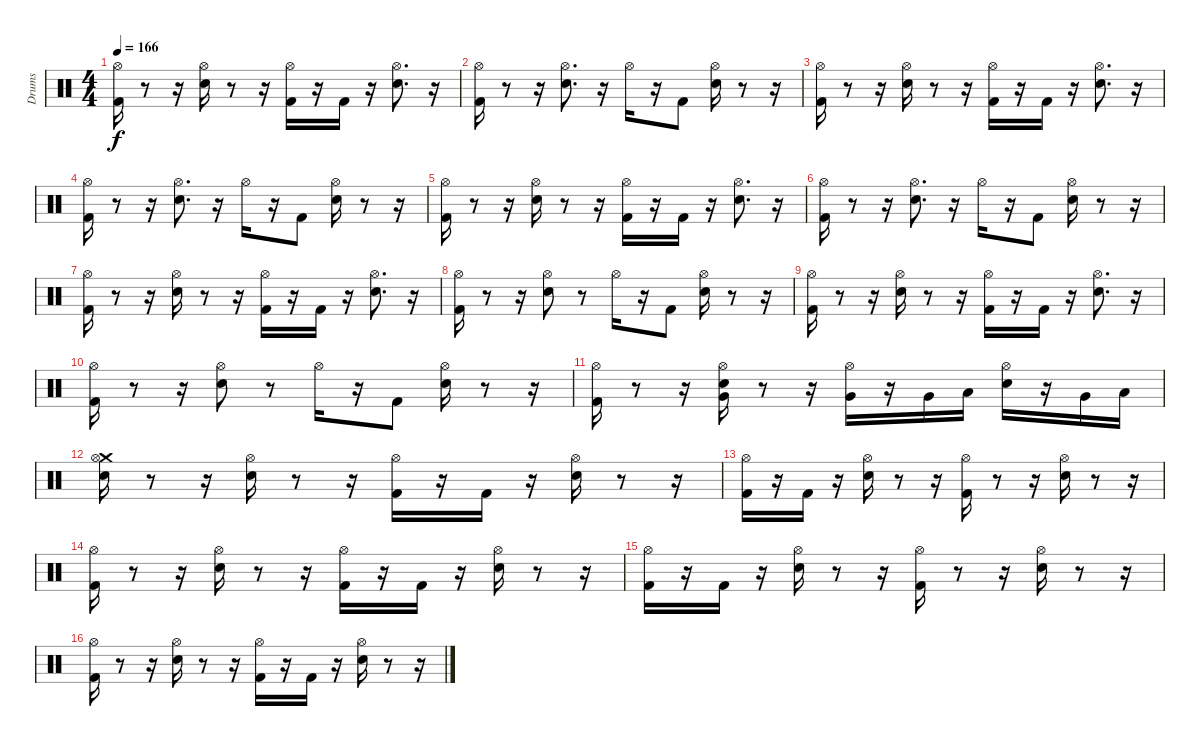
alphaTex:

\track ("Drums" "Drums") {instrument percussion}
\staff {score}
\articulation defaults
\ts (4 4)
\tempo 166
\clef neutral
\ks c
("Kick (hit) 2" "Hi-Hat (open)").16{dy f} r.8 r.16 ("Snare (hit) 2" "Hi-Hat (open)").16 r.8 r.16 ("Kick (hit) 2" "Hi-Hat (open)").16 r.16 "Kick (hit) 2".16 r.16 ("Snare (hit) 2" "Hi-Hat (open)").8{d} r.16 |
("Kick (hit) 2" "Hi-Hat (open)").16 r.8 r.16 ("Hi-Hat (open)" "Snare (hit) 2").8{d} r.16 "Hi-Hat (open)".16 r.16 "Kick (hit) 2".8 ("Snare (hit) 2" "Hi-Hat (open)").16 r.8 r.16 |
("Kick (hit) 2" "Hi-Hat (open)").16 r.8 r.16 ("Snare (hit) 2" "Hi-Hat (open)").16 r.8 r.16 ("Kick (hit) 2" "Hi-Hat (open)").16 r.16 "Kick (hit) 2".16 r.16 ("Snare (hit) 2" "Hi-Hat (open)").8{d} r.16 |
("Kick (hit) 2" "Hi-Hat (open)").16 r.8 r.16 ("Hi-Hat (open)" "Snare (hit) 2").8{d} r.16 "Hi-Hat (open)".16 r.16 "Kick (hit) 2".8 ("Snare (hit) 2" "Hi-Hat (open)").16 r.8 r.16 |
("Kick (hit) 2" "Hi-Hat (open)").16 r.8 r.16 ("Snare (hit) 2" "Hi-Hat (open)").16 r.8 r.16 ("Kick (hit) 2" "Hi-Hat (open)").16 r.16 "Kick (hit) 2".16 r.16 ("Snare (hit) 2" "Hi-Hat (open)").8{d} r.16 |
("Kick (hit) 2" "Hi-Hat (open)").16 r.8 r.16 ("Hi-Hat (open)" "Snare (hit) 2").8{d} r.16 "Hi-Hat (open)".16 r.16 "Kick (hit) 2".8 ("Snare (hit) 2" "Hi-Hat (open)").16 r.8 r.16 |
("Kick (hit) 2" "Hi-Hat (open)").16 r.8 r.16 ("Snare (hit) 2" "Hi-Hat (open)").16 r.8 r.16 ("Kick (hit) 2" "Hi-Hat (open)").16 r.16 "Kick (hit) 2".16 r.16 ("Snare (hit) 2" "Hi-Hat (open)").8{d} r.16 |
("Kick (hit) 2" "Hi-Hat (open)").16 r.8 r.16 ("Hi-Hat (open)" "Snare (hit) 2").8 r.8 "Hi-Hat (open)".16 r.16 "Kick (hit) 2".8 ("Snare (hit) 2" "Hi-Hat (open)").16 r.8 r.16 |
("Kick (hit) 2" "Hi-Hat (open)").16 r.8 r.16 ("Snare (hit) 2" "Hi-Hat (open)").16 r.8 r.16 ("Kick (hit) 2" "Hi-Hat (open)").16 r.16 "Kick (hit) 2".16 r.16 ("Snare (hit) 2" "Hi-Hat (open)").8{d} r.16 |
("Kick (hit) 2" "Hi-Hat (open)").16 r.8 r.16 ("Hi-Hat (open)" "Snare (hit) 2").8 r.8 "Hi-Hat (open)".16 r.16 "Kick (hit) 2".8 ("Snare (hit) 2" "Hi-Hat (open)").16 r.8 r.16 |
("Kick (hit) 2" "Hi-Hat (open)").16 r.8 r.16 ("Snare (hit) 2" "Hi-Hat (open)" "Very Low Tom (hit)").16 r.8 r.16 ("Very Low Tom (hit)" "Hi-Hat (open)").16 r.16 "Very Low Tom (hit)".16 "Low Floor Tom (hit)".16 ("Electric Snare (hit)" "Hi-Hat (open)").16 r.16 "Very Low Tom (hit)".16 "Low Floor Tom (hit)".16 |
("Crash medium (hit)" "Hi-Hat (open)" "Electric Snare (hit)").16 r.8 r.16 ("Snare (hit) 2" "Hi-Hat (open)").16 r.8 r.16 ("Kick (hit) 2" "Hi-Hat (open)").16 r.16 "Kick (hit) 2".16 r.16 ("Hi-Hat (open)" "Snare (hit) 2").16 r.8 r.16 |
("Hi-Hat (open)" "Kick (hit) 2").16 r.16 "Kick (hit) 2".16 r.16 ("Snare (hit) 2" "Hi-Hat (open)").16 r.8 r.16 ("Hi-Hat (open)" "Kick (hit) 2").16 r.8 r.16 ("Hi-Hat (open)" "Snare (hit) 2").16 r.8 r.16 |
("Hi-Hat (open)" "Kick (hit) 2").16 r.8 r.16 ("Snare (hit) 2" "Hi-Hat (open)").16 r.8 r.16 ("Kick (hit) 2" "Hi-Hat (open)").16 r.16 "Kick (hit) 2".16 r.16 ("Hi-Hat (open)" "Snare (hit) 2").16 r.8 r.16 |
("Hi-Hat (open)" "Kick (hit) 2").16 r.16 "Kick (hit) 2".16 r.16 ("Snare (hit) 2" "Hi-Hat (open)").16 r.8 r.16 ("Hi-Hat (open)" "Kick (hit) 2").16 r.8 r.16 ("Hi-Hat (open)" "Snare (hit) 2").16 r.8 r.16 |
("Hi-Hat (open)" "Kick (hit) 2").16 r.8 r.16 ("Snare (hit) 2" "Hi-Hat (open)").16 r.8 r.16 ("Kick (hit) 2" "Hi-Hat (open)").16 r.16 "Kick (hit) 2".16 r.16 ("Hi-Hat (open)" "Snare (hit) 2").16 r.8 r.16
